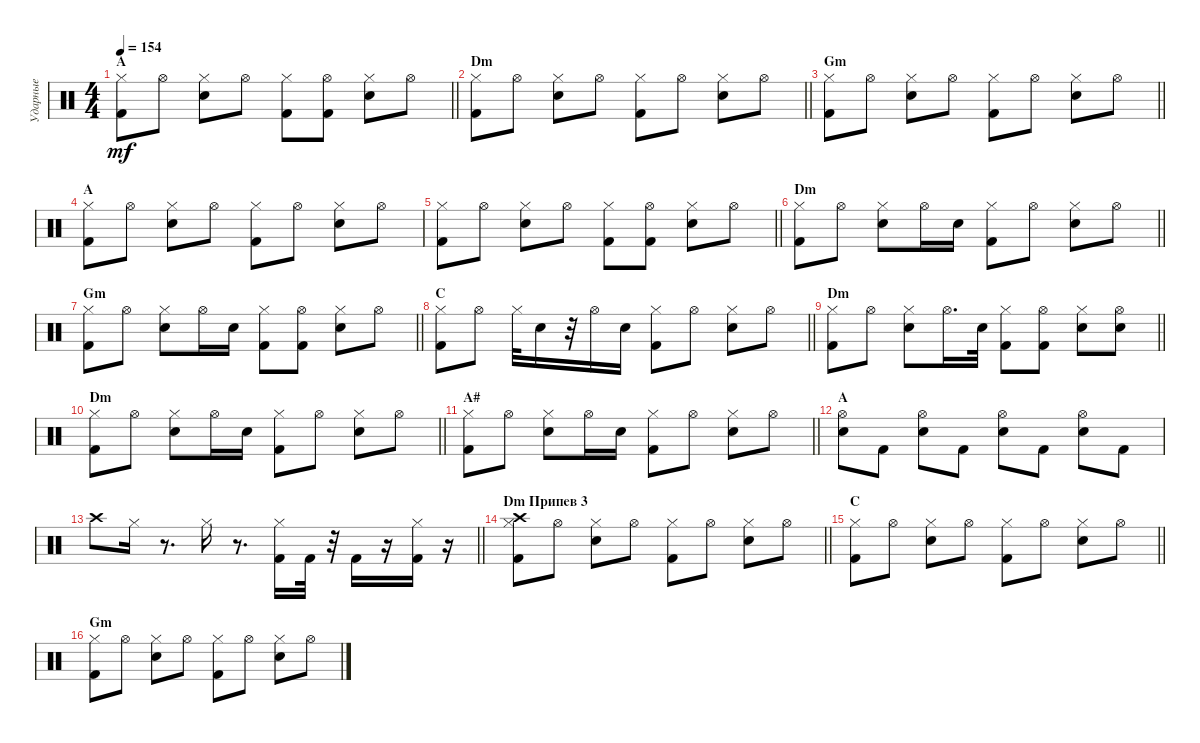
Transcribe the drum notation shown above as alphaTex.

\track ("Ударные" "Ударные") {instrument percussion}
\staff {score}
\articulation defaults
\ts (4 4)
\section ("" "A")
\tempo 154
\clef neutral
\barLineRight lightlight
\ks c
("Hi-Hat (closed)" "Kick (hit) 2").8{dy mf} "Hi-Hat (open)".8 ("Hi-Hat (closed)" "Electric Snare (hit)").8 "Hi-Hat (open)".8 ("Hi-Hat (closed)" "Kick (hit) 2").8 ("Hi-Hat (open)" "Kick (hit) 2").8 ("Hi-Hat (closed)" "Electric Snare (hit)").8 "Hi-Hat (open)".8 |
\section ("" "Dm")
\barLineRight lightlight
("Hi-Hat (closed)" "Kick (hit) 2").8 "Hi-Hat (open)".8 ("Hi-Hat (closed)" "Electric Snare (hit)").8 "Hi-Hat (open)".8 ("Hi-Hat (closed)" "Kick (hit) 2").8 "Hi-Hat (open)".8 ("Hi-Hat (closed)" "Electric Snare (hit)").8 "Hi-Hat (open)".8 |
\section ("" "Gm")
\barLineRight lightlight
("Hi-Hat (closed)" "Kick (hit) 2").8 "Hi-Hat (open)".8 ("Hi-Hat (closed)" "Electric Snare (hit)").8 "Hi-Hat (open)".8 ("Hi-Hat (closed)" "Kick (hit) 2").8 "Hi-Hat (open)".8 ("Hi-Hat (closed)" "Electric Snare (hit)").8 "Hi-Hat (open)".8 |
\section ("" "A")
("Hi-Hat (closed)" "Kick (hit) 2").8 "Hi-Hat (open)".8 ("Hi-Hat (closed)" "Electric Snare (hit)").8 "Hi-Hat (open)".8 ("Hi-Hat (closed)" "Kick (hit) 2").8 "Hi-Hat (open)".8 ("Hi-Hat (closed)" "Electric Snare (hit)").8 "Hi-Hat (open)".8 |
\barLineRight lightlight
("Hi-Hat (closed)" "Kick (hit) 2").8 "Hi-Hat (open)".8 ("Hi-Hat (closed)" "Electric Snare (hit)").8 "Hi-Hat (open)".8 ("Hi-Hat (closed)" "Kick (hit) 2").8 ("Hi-Hat (open)" "Kick (hit) 2").8 ("Hi-Hat (closed)" "Electric Snare (hit)").8 "Hi-Hat (open)".8 |
\section ("" "Dm")
\barLineRight lightlight
("Hi-Hat (closed)" "Kick (hit) 2").8 "Hi-Hat (open)".8 ("Hi-Hat (closed)" "Electric Snare (hit)").8 "Hi-Hat (open)".16 "Electric Snare (hit)".16 ("Hi-Hat (closed)" "Kick (hit) 2").8 "Hi-Hat (open)".8 ("Hi-Hat (closed)" "Electric Snare (hit)").8 "Hi-Hat (open)".8 |
\section ("" "Gm")
\barLineRight lightlight
("Hi-Hat (closed)" "Kick (hit) 2").8 "Hi-Hat (open)".8 ("Hi-Hat (closed)" "Electric Snare (hit)").8 "Hi-Hat (open)".16 "Electric Snare (hit)".16 ("Hi-Hat (closed)" "Kick (hit) 2").8 ("Hi-Hat (open)" "Kick (hit) 2").8 ("Hi-Hat (closed)" "Electric Snare (hit)").8 "Hi-Hat (open)".8 |
\section ("" "C")
\barLineRight lightlight
("Hi-Hat (closed)" "Kick (hit) 2").8 "Hi-Hat (open)".8 "Hi-Hat (closed)".32 "Electric Snare (hit)".16 r.32 "Hi-Hat (open)".16 "Electric Snare (hit)".16 ("Hi-Hat (closed)" "Kick (hit) 2").8 "Hi-Hat (open)".8 ("Hi-Hat (closed)" "Electric Snare (hit)").8 "Hi-Hat (open)".8 |
\section ("" "Dm")
\barLineRight lightlight
("Hi-Hat (closed)" "Kick (hit) 2").8 "Hi-Hat (open)".8 ("Hi-Hat (closed)" "Electric Snare (hit)").8 "Hi-Hat (open)".16{d} "Electric Snare (hit)".32 ("Hi-Hat (closed)" "Kick (hit) 2").8 ("Hi-Hat (open)" "Kick (hit) 2").8 ("Hi-Hat (closed)" "Electric Snare (hit)").8 ("Hi-Hat (open)" "Electric Snare (hit)").8 |
\section ("" "Dm")
\barLineRight lightlight
("Hi-Hat (closed)" "Kick (hit) 2").8 "Hi-Hat (open)".8 ("Hi-Hat (closed)" "Electric Snare (hit)").8 "Hi-Hat (open)".16 "Electric Snare (hit)".16 ("Hi-Hat (closed)" "Kick (hit) 2").8 "Hi-Hat (open)".8 ("Hi-Hat (closed)" "Electric Snare (hit)").8 "Hi-Hat (open)".8 |
\section ("" "A#")
\barLineRight lightlight
("Hi-Hat (closed)" "Kick (hit) 2").8 "Hi-Hat (open)".8 ("Hi-Hat (closed)" "Electric Snare (hit)").8 "Hi-Hat (open)".16 "Electric Snare (hit)".16 ("Hi-Hat (closed)" "Kick (hit) 2").8 "Hi-Hat (open)".8 ("Hi-Hat (closed)" "Electric Snare (hit)").8 "Hi-Hat (open)".8 |
\section ("" "A")
("Electric Snare (hit)" "Hi-Hat (open)").8 "Kick (hit) 2".8 ("Electric Snare (hit)" "Hi-Hat (open)").8 "Kick (hit) 2".8 ("Electric Snare (hit)" "Hi-Hat (open)").8 "Kick (hit) 2".8 ("Electric Snare (hit)" "Hi-Hat (open)").8 "Kick (hit) 2".8 |
\barLineRight lightlight "Crash high (hit)".8 "Hi-Hat (closed)".16
r.8{d} "Hi-Hat (closed)".16 r.8{d} ("Kick (hit) 2" "Hi-Hat (closed)").16 "Kick (hit) 2".32 r.32 "Kick (hit) 2".16 r.16 ("Hi-Hat (closed)" "Kick (hit) 2").16 r.16 |
\section ("" "Dm Припев 3")
\barLineRight lightlight
("Hi-Hat (closed)" "Kick (hit) 2" "Crash high (hit)").8 "Hi-Hat (open)".8 ("Hi-Hat (closed)" "Electric Snare (hit)").8 "Hi-Hat (open)".8 ("Hi-Hat (closed)" "Kick (hit) 2").8 "Hi-Hat (open)".8 ("Hi-Hat (closed)" "Electric Snare (hit)").8 "Hi-Hat (open)".8 |
\section ("" "C")
\barLineRight lightlight
("Hi-Hat (closed)" "Kick (hit) 2").8 "Hi-Hat (open)".8 ("Hi-Hat (closed)" "Electric Snare (hit)").8 "Hi-Hat (open)".8 ("Hi-Hat (closed)" "Kick (hit) 2").8 "Hi-Hat (open)".8 ("Hi-Hat (closed)" "Electric Snare (hit)").8 "Hi-Hat (open)".8 |
\section ("" "Gm")
("Hi-Hat (closed)" "Kick (hit) 2").8 "Hi-Hat (open)".8 ("Hi-Hat (closed)" "Electric Snare (hit)").8 "Hi-Hat (open)".8 ("Hi-Hat (closed)" "Kick (hit) 2").8 "Hi-Hat (open)".8 ("Hi-Hat (closed)" "Electric Snare (hit)").8 "Hi-Hat (open)".8
